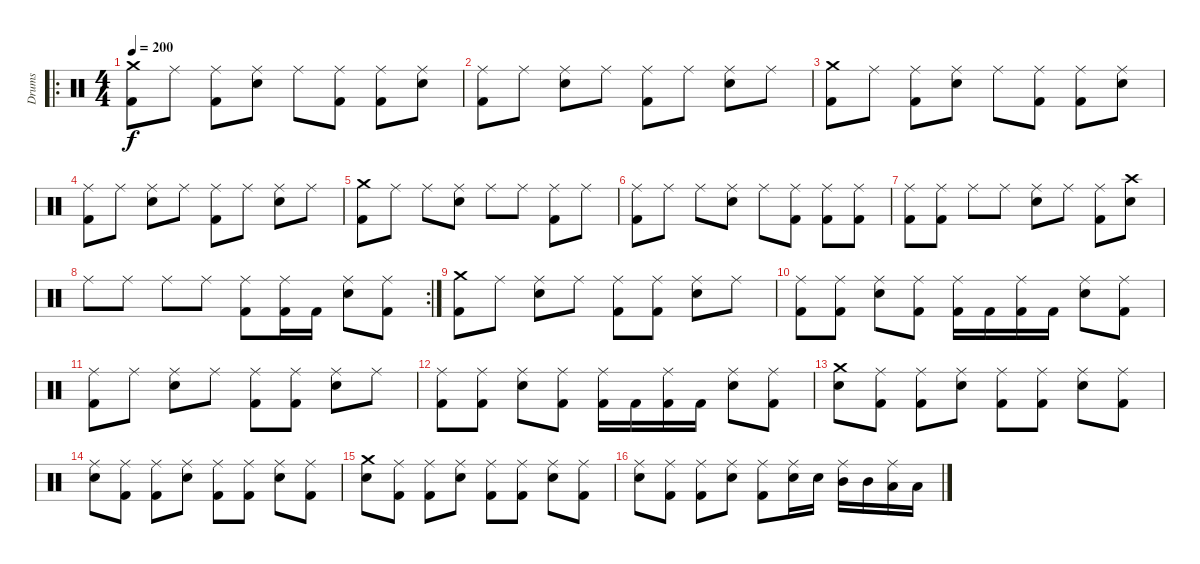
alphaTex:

\track ("Drums" "Drums") {instrument percussion}
\staff {score}
\articulation defaults
\ro
\ts (4 4)
\tempo 200
\clef neutral
\ks c
("Crash medium (hit)" "Kick (hit) 2").8{dy f} "Ride (middle)".8 ("Ride (middle)" "Kick (hit) 2").8 ("Ride (middle)" "Snare (hit) 2").8 "Ride (middle)".8 ("Ride (middle)" "Kick (hit) 2").8 ("Ride (middle)" "Kick (hit) 2").8 ("Ride (middle)" "Snare (hit) 2").8 |
("Ride (middle)" "Kick (hit) 2").8 "Ride (middle)".8 ("Ride (middle)" "Snare (hit) 2").8 "Ride (middle)".8 ("Ride (middle)" "Kick (hit) 2").8 "Ride (middle)".8 ("Ride (middle)" "Snare (hit) 2").8 "Ride (middle)".8 |
("Crash medium (hit)" "Kick (hit) 2").8 "Ride (middle)".8 ("Ride (middle)" "Kick (hit) 2").8 ("Ride (middle)" "Snare (hit) 2").8 "Ride (middle)".8 ("Ride (middle)" "Kick (hit) 2").8 ("Ride (middle)" "Kick (hit) 2").8 ("Ride (middle)" "Snare (hit) 2").8 |
("Ride (middle)" "Kick (hit) 2").8 "Ride (middle)".8 ("Ride (middle)" "Snare (hit) 2").8 "Ride (middle)".8 ("Ride (middle)" "Kick (hit) 2").8 "Ride (middle)".8 ("Ride (middle)" "Snare (hit) 2").8 "Ride (middle)".8 |
("Crash medium (hit)" "Kick (hit) 2").8 "Ride (middle)".8 "Ride (middle)".8 ("Ride (middle)" "Snare (hit) 2").8 "Ride (middle)".8 "Ride (middle)".8 ("Ride (middle)" "Kick (hit) 2").8 "Ride (middle)".8 |
("Ride (middle)" "Kick (hit) 2").8 "Ride (middle)".8 "Ride (middle)".8 ("Ride (middle)" "Snare (hit) 2").8 "Ride (middle)".8 ("Ride (middle)" "Kick (hit) 2").8 ("Ride (middle)" "Kick (hit) 2").8 ("Ride (middle)" "Kick (hit) 2").8 |
("Ride (middle)" "Kick (hit) 2").8 ("Ride (middle)" "Kick (hit) 2").8 "Ride (middle)".8 "Ride (middle)".8 ("Ride (middle)" "Snare (hit) 2").8 "Ride (middle)".8 ("Ride (middle)" "Kick (hit) 2").8 ("Crash high (hit)" "Snare (hit) 2").8 |
\rc 2 "Ride (middle)".8 "Ride (middle)".8 "Ride (middle)".8 "Ride (middle)".8
("Ride (middle)" "Kick (hit) 2").8 ("Ride (middle)" "Kick (hit) 2").16 "Kick (hit) 2".16 ("Ride (middle)" "Snare (hit) 2").8 ("Ride (middle)" "Kick (hit) 2").8 |
("Crash medium (hit)" "Kick (hit) 2").8 "Ride (middle)".8 ("Ride (middle)" "Snare (hit) 2").8 "Ride (middle)".8 ("Ride (middle)" "Kick (hit) 2").8 ("Ride (middle)" "Kick (hit) 2").8 ("Ride (middle)" "Snare (hit) 2").8 "Ride (middle)".8 |
("Ride (middle)" "Kick (hit) 2").8 ("Ride (middle)" "Kick (hit) 2").8 ("Ride (middle)" "Snare (hit) 2").8 ("Ride (middle)" "Kick (hit) 2").8 ("Ride (middle)" "Kick (hit) 2").16 "Kick (hit) 2".16 ("Ride (middle)" "Kick (hit) 2").16 "Kick (hit) 2".16 ("Ride (middle)" "Snare (hit) 2").8 ("Ride (middle)" "Kick (hit) 2").8 |
("Ride (middle)" "Kick (hit) 2").8 "Ride (middle)".8 ("Ride (middle)" "Snare (hit) 2").8 "Ride (middle)".8 ("Ride (middle)" "Kick (hit) 2").8 ("Ride (middle)" "Kick (hit) 2").8 ("Ride (middle)" "Snare (hit) 2").8 "Ride (middle)".8 |
("Ride (middle)" "Kick (hit) 2").8 ("Ride (middle)" "Kick (hit) 2").8 ("Ride (middle)" "Snare (hit) 2").8 ("Ride (middle)" "Kick (hit) 2").8 ("Ride (middle)" "Kick (hit) 2").16 "Kick (hit) 2".16 ("Ride (middle)" "Kick (hit) 2").16 "Kick (hit) 2".16 ("Ride (middle)" "Snare (hit) 2").8 ("Ride (middle)" "Kick (hit) 2").8 |
("Crash medium (hit)" "Snare (hit) 2").8 ("Ride (middle)" "Kick (hit) 2").8 ("Ride (middle)" "Kick (hit) 2").8 ("Ride (middle)" "Snare (hit) 2").8 ("Ride (middle)" "Kick (hit) 2").8 ("Ride (middle)" "Kick (hit) 2").8 ("Ride (middle)" "Snare (hit) 2").8 ("Ride (middle)" "Kick (hit) 2").8 |
("Ride (middle)" "Snare (hit) 2").8 ("Ride (middle)" "Kick (hit) 2").8 ("Ride (middle)" "Kick (hit) 2").8 ("Ride (middle)" "Snare (hit) 2").8 ("Ride (middle)" "Kick (hit) 2").8 ("Ride (middle)" "Kick (hit) 2").8 ("Ride (middle)" "Snare (hit) 2").8 ("Ride (middle)" "Kick (hit) 2").8 |
("Crash medium (hit)" "Snare (hit) 2").8 ("Ride (middle)" "Kick (hit) 2").8 ("Ride (middle)" "Kick (hit) 2").8 ("Ride (middle)" "Snare (hit) 2").8 ("Ride (middle)" "Kick (hit) 2").8 ("Ride (middle)" "Kick (hit) 2").8 ("Ride (middle)" "Snare (hit) 2").8 ("Ride (middle)" "Kick (hit) 2").8 |
("Ride (middle)" "Snare (hit) 2").8 ("Ride (middle)" "Kick (hit) 2").8 ("Ride (middle)" "Kick (hit) 2").8 ("Ride (middle)" "Snare (hit) 2").8 ("Ride (middle)" "Kick (hit) 2").8 ("Ride (middle)" "Snare (hit) 2").16 "Snare (hit) 2".16 ("Ride (middle)" "Mid Tom (hit)").16 "Mid Tom (hit)".16 ("Ride (middle)" "Low Tom (hit)").16 "Low Tom (hit)".16
